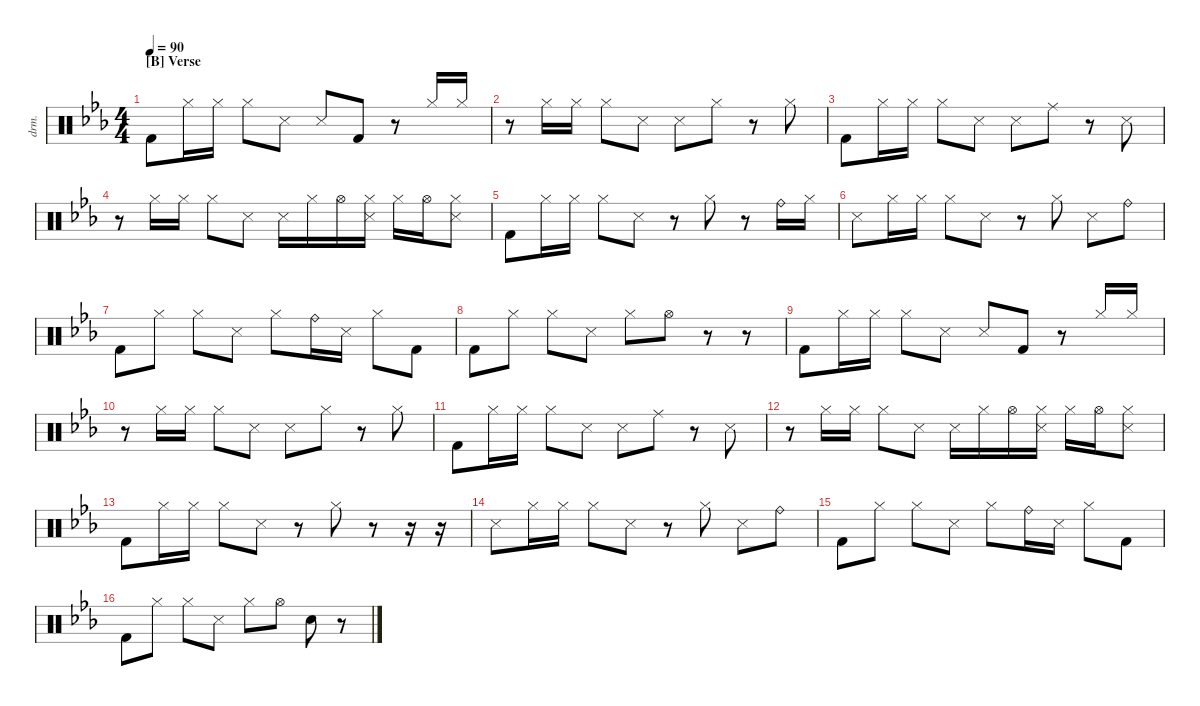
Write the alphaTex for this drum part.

\defaultSystemsLayout 4
\hideDynamics
\bracketExtendMode nobrackets
\otherSystemsTrackNameOrientation horizontal
\track ("Drumkit" "drm.") {instrument percussion}
\staff {score}
\articulation defaults
\ts (4 4)
\section ("B" "Verse")
\tempo 90
\clef neutral
\ks cminor "Kick (hit) 2"{acc forcenatural}.8{dy mf beam Down} "Hi-Hat (closed)"{acc forcenatural}.16{beam Down} "Hi-Hat (closed)"{acc forcenatural}.16{beam Down} "Hi-Hat (closed)"{acc forcenatural}.8{beam Down} "Snare (side stick) 3"{acc forcenatural}.8{beam Down} "Snare (side stick) 3"{acc forcenatural}.8{beam Up} "Kick (hit) 2"{acc forcenatural}.8{beam Up}
r.8{beam Up} "Hi-Hat (closed)"{acc forcenatural}.16{beam Down} "Hi-Hat (closed)"{acc forcenatural}.16{beam Down} |
r.8{beam Down} "Hi-Hat (closed)"{acc forcenatural}.16{beam Down} "Hi-Hat (closed)"{acc forcenatural}.16{beam Down} "Hi-Hat (closed)"{acc forcenatural}.8{beam Down} "Snare (side stick) 3"{acc forcenatural}.8{beam Down} "Snare (side stick) 3"{acc forcenatural}.8{beam Down} "Hi-Hat (closed)"{acc forcenatural}.8{beam Down} r.8{beam Down} "Hi-Hat (closed)"{acc forcenatural}.8{beam Down} |
"Kick (hit) 2"{acc forcenatural}.8{beam Down} "Hi-Hat (closed)"{acc forcenatural}.16{beam Down} "Hi-Hat (closed)"{acc forcenatural}.16{beam Down} "Hi-Hat (closed)"{acc forcenatural}.8{beam Down} "Snare (side stick) 3"{acc forcenatural}.8{beam Down} "Snare (side stick) 3"{acc forcenatural}.8{beam Down} "Ride (middle)"{acc forcenatural}.8{beam Down} r.8{beam Down} "Snare (side stick) 3"{acc forcenatural}.8{beam Down} |
r.8{beam Down} "Hi-Hat (closed)"{acc forcenatural}.16{beam Down} "Hi-Hat (closed)"{acc forcenatural}.16{beam Down} "Hi-Hat (closed)"{acc forcenatural}.8{beam Down} "Snare (side stick) 3"{acc forcenatural}.8{beam Down} "Snare (side stick) 3"{acc forcenatural}.16{beam Down} "Hi-Hat (closed)"{acc forcenatural}.16{beam Down} "Hi-Hat (open)"{acc forcenatural}.16{beam Down} ("Hi-Hat (closed)"{acc forcenatural} "Snare (side stick) 3"{acc forcenatural}).16{beam Down} "Hi-Hat (closed)"{acc forcenatural}.16{beam Down} "Hi-Hat (open)"{acc forcenatural}.16{beam Down} ("Hi-Hat (closed)"{acc forcenatural} "Snare (side stick) 3"{acc forcenatural}).8{beam Down} |
"Kick (hit) 2"{acc forcenatural}.8{beam Down} "Hi-Hat (closed)"{acc forcenatural}.16{beam Down} "Hi-Hat (closed)"{acc forcenatural}.16{beam Down} "Hi-Hat (closed)"{acc forcenatural}.8{beam Down} "Snare (side stick) 3"{acc forcenatural}.8{beam Down} r.8{beam Down} "Hi-Hat (closed)"{acc forcenatural}.8{beam Down} r.8{beam Down} "Ride (bell)"{acc forcenatural}.16{beam Down} "Hi-Hat (closed)"{acc forcenatural}.16{beam Down} |
"Snare (side stick) 3"{acc forcenatural}.8{beam Down} "Hi-Hat (closed)"{acc forcenatural}.16{beam Down} "Hi-Hat (closed)"{acc forcenatural}.16{beam Down} "Hi-Hat (closed)"{acc forcenatural}.8{beam Down} "Snare (side stick) 3"{acc forcenatural}.8{beam Down} r.8{beam Down} "Hi-Hat (closed)"{acc forcenatural}.8{beam Down} "Snare (side stick) 3"{acc forcenatural}.8{beam Down} "Ride (bell)"{acc forcenatural}.8{beam Down} |
"Kick (hit) 2"{acc forcenatural}.8{beam Down} "Hi-Hat (closed)"{acc forcenatural}.8{beam Down} "Hi-Hat (closed)"{acc forcenatural}.8{beam Down} "Snare (side stick) 3"{acc forcenatural}.8{beam Down} "Hi-Hat (closed)"{acc forcenatural}.8{beam Down} "Ride (bell)"{acc forcenatural}.16{beam Down} "Snare (side stick) 3"{acc forcenatural}.16{beam Down} "Hi-Hat (closed)"{acc forcenatural}.8{beam Down} "Kick (hit) 2"{acc forcenatural}.8{beam Down} |
"Kick (hit) 2"{acc forcenatural}.8{beam Down} "Hi-Hat (closed)"{acc forcenatural}.8{beam Down} "Hi-Hat (closed)"{acc forcenatural}.8{beam Down} "Snare (side stick) 3"{acc forcenatural}.8{beam Down} "Hi-Hat (closed)"{acc forcenatural}.8{beam Down} "Hi-Hat (open)"{acc forcenatural}.8{beam Down} r.8{beam Down} r.8{beam Down} |
"Kick (hit) 2"{acc forcenatural}.8{beam Down} "Hi-Hat (closed)"{acc forcenatural}.16{beam Down} "Hi-Hat (closed)"{acc forcenatural}.16{beam Down} "Hi-Hat (closed)"{acc forcenatural}.8{beam Down} "Snare (side stick) 3"{acc forcenatural}.8{beam Down} "Snare (side stick) 3"{acc forcenatural}.8{beam Up} "Kick (hit) 2"{acc forcenatural}.8{beam Up} r.8{beam Up} "Hi-Hat (closed)"{acc forcenatural}.16{beam Down} "Hi-Hat (closed)"{acc forcenatural}.16{beam Down} |
r.8{beam Down} "Hi-Hat (closed)"{acc forcenatural}.16{beam Down} "Hi-Hat (closed)"{acc forcenatural}.16{beam Down} "Hi-Hat (closed)"{acc forcenatural}.8{beam Down} "Snare (side stick) 3"{acc forcenatural}.8{beam Down} "Snare (side stick) 3"{acc forcenatural}.8{beam Down} "Hi-Hat (closed)"{acc forcenatural}.8{beam Down} r.8{beam Down} "Hi-Hat (closed)"{acc forcenatural}.8{beam Down} |
"Kick (hit) 2"{acc forcenatural}.8{beam Down} "Hi-Hat (closed)"{acc forcenatural}.16{beam Down} "Hi-Hat (closed)"{acc forcenatural}.16{beam Down} "Hi-Hat (closed)"{acc forcenatural}.8{beam Down} "Snare (side stick) 3"{acc forcenatural}.8{beam Down} "Snare (side stick) 3"{acc forcenatural}.8{beam Down} "Ride (middle)"{acc forcenatural}.8{beam Down} r.8{beam Down} "Snare (side stick) 3"{acc forcenatural}.8{beam Down} |
r.8{beam Down} "Hi-Hat (closed)"{acc forcenatural}.16{beam Down} "Hi-Hat (closed)"{acc forcenatural}.16{beam Down} "Hi-Hat (closed)"{acc forcenatural}.8{beam Down} "Snare (side stick) 3"{acc forcenatural}.8{beam Down} "Snare (side stick) 3"{acc forcenatural}.16{beam Down} "Hi-Hat (closed)"{acc forcenatural}.16{beam Down} "Hi-Hat (open)"{acc forcenatural}.16{beam Down} ("Hi-Hat (closed)"{acc forcenatural} "Snare (side stick) 3"{acc forcenatural}).16{beam Down} "Hi-Hat (closed)"{acc forcenatural}.16{beam Down} "Hi-Hat (open)"{acc forcenatural}.16{beam Down} ("Hi-Hat (closed)"{acc forcenatural} "Snare (side stick) 3"{acc forcenatural}).8{beam Down} |
"Kick (hit) 2"{acc forcenatural}.8{beam Down} "Hi-Hat (closed)"{acc forcenatural}.16{beam Down} "Hi-Hat (closed)"{acc forcenatural}.16{beam Down} "Hi-Hat (closed)"{acc forcenatural}.8{beam Down} "Snare (side stick) 3"{acc forcenatural}.8{beam Down} r.8{beam Down} "Hi-Hat (closed)"{acc forcenatural}.8{beam Down} r.8{beam Down} r.16{beam Down} r.16{beam Down} |
"Snare (side stick) 3"{acc forcenatural}.8{beam Down} "Hi-Hat (closed)"{acc forcenatural}.16{beam Down} "Hi-Hat (closed)"{acc forcenatural}.16{beam Down} "Hi-Hat (closed)"{acc forcenatural}.8{beam Down} "Snare (side stick) 3"{acc forcenatural}.8{beam Down} r.8{beam Down} "Hi-Hat (closed)"{acc forcenatural}.8{beam Down} "Snare (side stick) 3"{acc forcenatural}.8{beam Down} "Ride (bell)"{acc forcenatural}.8{beam Down} |
"Kick (hit) 2"{acc forcenatural}.8{beam Down} "Hi-Hat (closed)"{acc forcenatural}.8{beam Down} "Hi-Hat (closed)"{acc forcenatural}.8{beam Down} "Snare (side stick) 3"{acc forcenatural}.8{beam Down} "Hi-Hat (closed)"{acc forcenatural}.8{beam Down} "Ride (bell)"{acc forcenatural}.16{beam Down} "Snare (side stick) 3"{acc forcenatural}.16{beam Down} "Hi-Hat (closed)"{acc forcenatural}.8{beam Down} "Kick (hit) 2"{acc forcenatural}.8{beam Down} |
"Kick (hit) 2"{acc forcenatural}.8{beam Down} "Hi-Hat (closed)"{acc forcenatural}.8{beam Down} "Hi-Hat (closed)"{acc forcenatural}.8{beam Down} "Snare (side stick) 3"{acc forcenatural}.8{beam Down} "Hi-Hat (closed)"{acc forcenatural}.8{beam Down} "Hi-Hat (open)"{acc forcenatural}.8{beam Down} "Snare (hit) 2"{acc forcenatural}.8{beam Down} r.8{beam Down}
